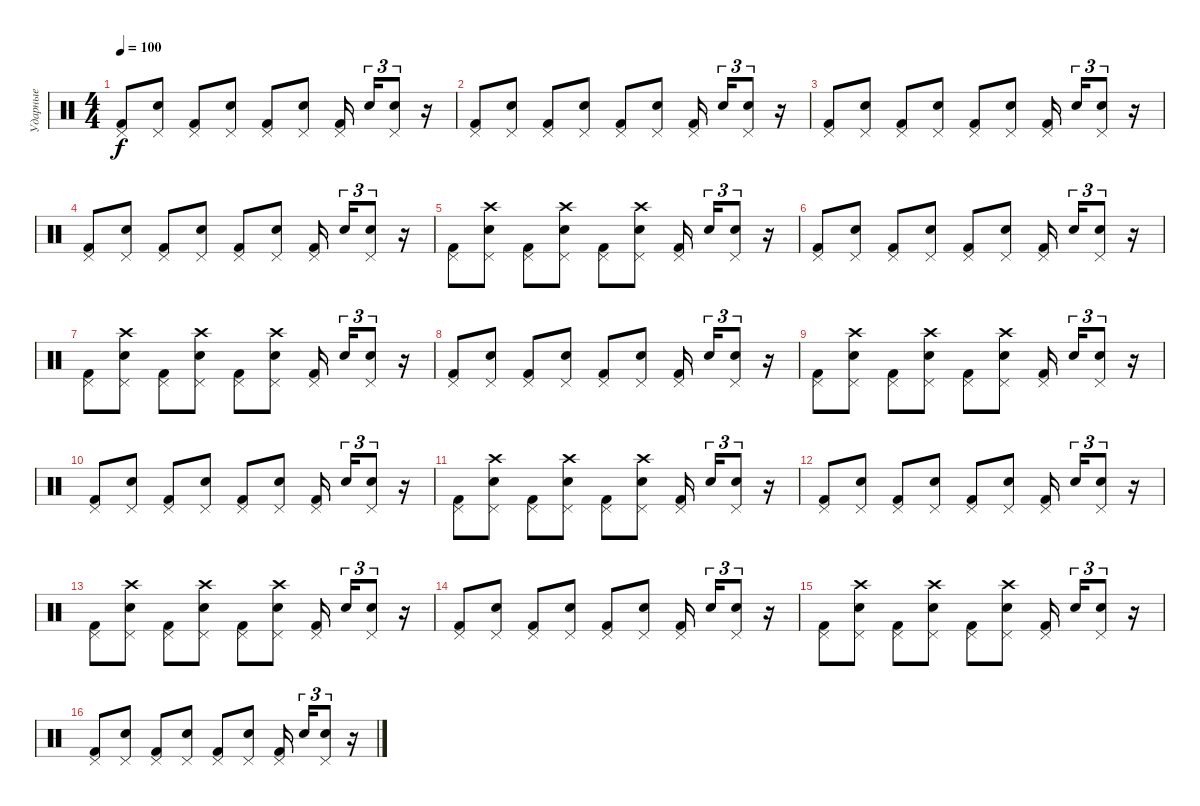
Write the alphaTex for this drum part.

\track ("Ударные" "Ударные") {instrument percussion}
\staff {score}
\articulation defaults
\ts (4 4)
\tempo 100
\clef neutral
\ks c
("Pedal Hi-Hat (hit)" "Kick (hit) 2").8{dy f} ("Pedal Hi-Hat (hit)" "Electric Snare (hit)").8 ("Pedal Hi-Hat (hit)" "Kick (hit) 2").8 ("Pedal Hi-Hat (hit)" "Electric Snare (hit)").8 ("Pedal Hi-Hat (hit)" "Kick (hit) 2").8 ("Pedal Hi-Hat (hit)" "Electric Snare (hit)").8 ("Pedal Hi-Hat (hit)" "Kick (hit) 2").16{beam splitsecondary} "Electric Snare (hit)".16{tu (3 2)} ("Pedal Hi-Hat (hit)" "Electric Snare (hit)").8{tu (3 2)} r.16 |
("Pedal Hi-Hat (hit)" "Kick (hit) 2").8 ("Pedal Hi-Hat (hit)" "Electric Snare (hit)").8 ("Pedal Hi-Hat (hit)" "Kick (hit) 2").8 ("Pedal Hi-Hat (hit)" "Electric Snare (hit)").8 ("Pedal Hi-Hat (hit)" "Kick (hit) 2").8 ("Pedal Hi-Hat (hit)" "Electric Snare (hit)").8 ("Pedal Hi-Hat (hit)" "Kick (hit) 2").16{beam splitsecondary} "Electric Snare (hit)".16{tu (3 2)} ("Pedal Hi-Hat (hit)" "Electric Snare (hit)").8{tu (3 2)} r.16 |
("Pedal Hi-Hat (hit)" "Kick (hit) 2").8 ("Pedal Hi-Hat (hit)" "Electric Snare (hit)").8 ("Pedal Hi-Hat (hit)" "Kick (hit) 2").8 ("Pedal Hi-Hat (hit)" "Electric Snare (hit)").8 ("Pedal Hi-Hat (hit)" "Kick (hit) 2").8 ("Pedal Hi-Hat (hit)" "Electric Snare (hit)").8 ("Pedal Hi-Hat (hit)" "Kick (hit) 2").16{beam splitsecondary} "Electric Snare (hit)".16{tu (3 2)} ("Pedal Hi-Hat (hit)" "Electric Snare (hit)").8{tu (3 2)} r.16 |
("Pedal Hi-Hat (hit)" "Kick (hit) 2").8 ("Pedal Hi-Hat (hit)" "Electric Snare (hit)").8 ("Pedal Hi-Hat (hit)" "Kick (hit) 2").8 ("Pedal Hi-Hat (hit)" "Electric Snare (hit)").8 ("Pedal Hi-Hat (hit)" "Kick (hit) 2").8 ("Pedal Hi-Hat (hit)" "Electric Snare (hit)").8 ("Pedal Hi-Hat (hit)" "Kick (hit) 2").16{beam splitsecondary} "Electric Snare (hit)".16{tu (3 2)} ("Pedal Hi-Hat (hit)" "Electric Snare (hit)").8{tu (3 2)} r.16 |
("Pedal Hi-Hat (hit)" "Kick (hit) 2").8 ("Pedal Hi-Hat (hit)" "Electric Snare (hit)" "Crash high (hit)").8 ("Pedal Hi-Hat (hit)" "Kick (hit) 2").8 ("Pedal Hi-Hat (hit)" "Electric Snare (hit)" "Crash high (hit)").8 ("Pedal Hi-Hat (hit)" "Kick (hit) 2").8 ("Pedal Hi-Hat (hit)" "Electric Snare (hit)" "Crash high (hit)").8 ("Pedal Hi-Hat (hit)" "Kick (hit) 2").16{beam splitsecondary} "Electric Snare (hit)".16{tu (3 2)} ("Pedal Hi-Hat (hit)" "Electric Snare (hit)").8{tu (3 2)} r.16 |
("Pedal Hi-Hat (hit)" "Kick (hit) 2").8 ("Pedal Hi-Hat (hit)" "Electric Snare (hit)").8 ("Pedal Hi-Hat (hit)" "Kick (hit) 2").8 ("Pedal Hi-Hat (hit)" "Electric Snare (hit)").8 ("Pedal Hi-Hat (hit)" "Kick (hit) 2").8 ("Pedal Hi-Hat (hit)" "Electric Snare (hit)").8 ("Pedal Hi-Hat (hit)" "Kick (hit) 2").16{beam splitsecondary} "Electric Snare (hit)".16{tu (3 2)} ("Pedal Hi-Hat (hit)" "Electric Snare (hit)").8{tu (3 2)} r.16 |
("Pedal Hi-Hat (hit)" "Kick (hit) 2").8 ("Pedal Hi-Hat (hit)" "Electric Snare (hit)" "Crash high (hit)").8 ("Pedal Hi-Hat (hit)" "Kick (hit) 2").8 ("Pedal Hi-Hat (hit)" "Electric Snare (hit)" "Crash high (hit)").8 ("Pedal Hi-Hat (hit)" "Kick (hit) 2").8 ("Pedal Hi-Hat (hit)" "Electric Snare (hit)" "Crash high (hit)").8 ("Pedal Hi-Hat (hit)" "Kick (hit) 2").16{beam splitsecondary} "Electric Snare (hit)".16{tu (3 2)} ("Pedal Hi-Hat (hit)" "Electric Snare (hit)").8{tu (3 2)} r.16 |
("Pedal Hi-Hat (hit)" "Kick (hit) 2").8 ("Pedal Hi-Hat (hit)" "Electric Snare (hit)").8 ("Pedal Hi-Hat (hit)" "Kick (hit) 2").8 ("Pedal Hi-Hat (hit)" "Electric Snare (hit)").8 ("Pedal Hi-Hat (hit)" "Kick (hit) 2").8 ("Pedal Hi-Hat (hit)" "Electric Snare (hit)").8 ("Pedal Hi-Hat (hit)" "Kick (hit) 2").16{beam splitsecondary} "Electric Snare (hit)".16{tu (3 2)} ("Pedal Hi-Hat (hit)" "Electric Snare (hit)").8{tu (3 2)} r.16 |
("Pedal Hi-Hat (hit)" "Kick (hit) 2").8 ("Pedal Hi-Hat (hit)" "Electric Snare (hit)" "Crash high (hit)").8 ("Pedal Hi-Hat (hit)" "Kick (hit) 2").8 ("Pedal Hi-Hat (hit)" "Electric Snare (hit)" "Crash high (hit)").8 ("Pedal Hi-Hat (hit)" "Kick (hit) 2").8 ("Pedal Hi-Hat (hit)" "Electric Snare (hit)" "Crash high (hit)").8 ("Pedal Hi-Hat (hit)" "Kick (hit) 2").16{beam splitsecondary} "Electric Snare (hit)".16{tu (3 2)} ("Pedal Hi-Hat (hit)" "Electric Snare (hit)").8{tu (3 2)} r.16 |
("Pedal Hi-Hat (hit)" "Kick (hit) 2").8 ("Pedal Hi-Hat (hit)" "Electric Snare (hit)").8 ("Pedal Hi-Hat (hit)" "Kick (hit) 2").8 ("Pedal Hi-Hat (hit)" "Electric Snare (hit)").8 ("Pedal Hi-Hat (hit)" "Kick (hit) 2").8 ("Pedal Hi-Hat (hit)" "Electric Snare (hit)").8 ("Pedal Hi-Hat (hit)" "Kick (hit) 2").16{beam splitsecondary} "Electric Snare (hit)".16{tu (3 2)} ("Pedal Hi-Hat (hit)" "Electric Snare (hit)").8{tu (3 2)} r.16 |
("Pedal Hi-Hat (hit)" "Kick (hit) 2").8 ("Pedal Hi-Hat (hit)" "Electric Snare (hit)" "Crash high (hit)").8 ("Pedal Hi-Hat (hit)" "Kick (hit) 2").8 ("Pedal Hi-Hat (hit)" "Electric Snare (hit)" "Crash high (hit)").8 ("Pedal Hi-Hat (hit)" "Kick (hit) 2").8 ("Pedal Hi-Hat (hit)" "Electric Snare (hit)" "Crash high (hit)").8 ("Pedal Hi-Hat (hit)" "Kick (hit) 2").16{beam splitsecondary} "Electric Snare (hit)".16{tu (3 2)} ("Pedal Hi-Hat (hit)" "Electric Snare (hit)").8{tu (3 2)} r.16 |
("Pedal Hi-Hat (hit)" "Kick (hit) 2").8 ("Pedal Hi-Hat (hit)" "Electric Snare (hit)").8 ("Pedal Hi-Hat (hit)" "Kick (hit) 2").8 ("Pedal Hi-Hat (hit)" "Electric Snare (hit)").8 ("Pedal Hi-Hat (hit)" "Kick (hit) 2").8 ("Pedal Hi-Hat (hit)" "Electric Snare (hit)").8 ("Pedal Hi-Hat (hit)" "Kick (hit) 2").16{beam splitsecondary} "Electric Snare (hit)".16{tu (3 2)} ("Pedal Hi-Hat (hit)" "Electric Snare (hit)").8{tu (3 2)} r.16 |
("Pedal Hi-Hat (hit)" "Kick (hit) 2").8 ("Pedal Hi-Hat (hit)" "Electric Snare (hit)" "Crash high (hit)").8 ("Pedal Hi-Hat (hit)" "Kick (hit) 2").8 ("Pedal Hi-Hat (hit)" "Electric Snare (hit)" "Crash high (hit)").8 ("Pedal Hi-Hat (hit)" "Kick (hit) 2").8 ("Pedal Hi-Hat (hit)" "Electric Snare (hit)" "Crash high (hit)").8 ("Pedal Hi-Hat (hit)" "Kick (hit) 2").16{beam splitsecondary} "Electric Snare (hit)".16{tu (3 2)} ("Pedal Hi-Hat (hit)" "Electric Snare (hit)").8{tu (3 2)} r.16 |
("Pedal Hi-Hat (hit)" "Kick (hit) 2").8 ("Pedal Hi-Hat (hit)" "Electric Snare (hit)").8 ("Pedal Hi-Hat (hit)" "Kick (hit) 2").8 ("Pedal Hi-Hat (hit)" "Electric Snare (hit)").8 ("Pedal Hi-Hat (hit)" "Kick (hit) 2").8 ("Pedal Hi-Hat (hit)" "Electric Snare (hit)").8 ("Pedal Hi-Hat (hit)" "Kick (hit) 2").16{beam splitsecondary} "Electric Snare (hit)".16{tu (3 2)} ("Pedal Hi-Hat (hit)" "Electric Snare (hit)").8{tu (3 2)} r.16 |
("Pedal Hi-Hat (hit)" "Kick (hit) 2").8 ("Pedal Hi-Hat (hit)" "Electric Snare (hit)" "Crash high (hit)").8 ("Pedal Hi-Hat (hit)" "Kick (hit) 2").8 ("Pedal Hi-Hat (hit)" "Electric Snare (hit)" "Crash high (hit)").8 ("Pedal Hi-Hat (hit)" "Kick (hit) 2").8 ("Pedal Hi-Hat (hit)" "Electric Snare (hit)" "Crash high (hit)").8 ("Pedal Hi-Hat (hit)" "Kick (hit) 2").16{beam splitsecondary} "Electric Snare (hit)".16{tu (3 2)} ("Pedal Hi-Hat (hit)" "Electric Snare (hit)").8{tu (3 2)} r.16 |
("Pedal Hi-Hat (hit)" "Kick (hit) 2").8 ("Pedal Hi-Hat (hit)" "Electric Snare (hit)").8 ("Pedal Hi-Hat (hit)" "Kick (hit) 2").8 ("Pedal Hi-Hat (hit)" "Electric Snare (hit)").8 ("Pedal Hi-Hat (hit)" "Kick (hit) 2").8 ("Pedal Hi-Hat (hit)" "Electric Snare (hit)").8 ("Pedal Hi-Hat (hit)" "Kick (hit) 2").16{beam splitsecondary} "Electric Snare (hit)".16{tu (3 2)} ("Pedal Hi-Hat (hit)" "Electric Snare (hit)").8{tu (3 2)} r.16
